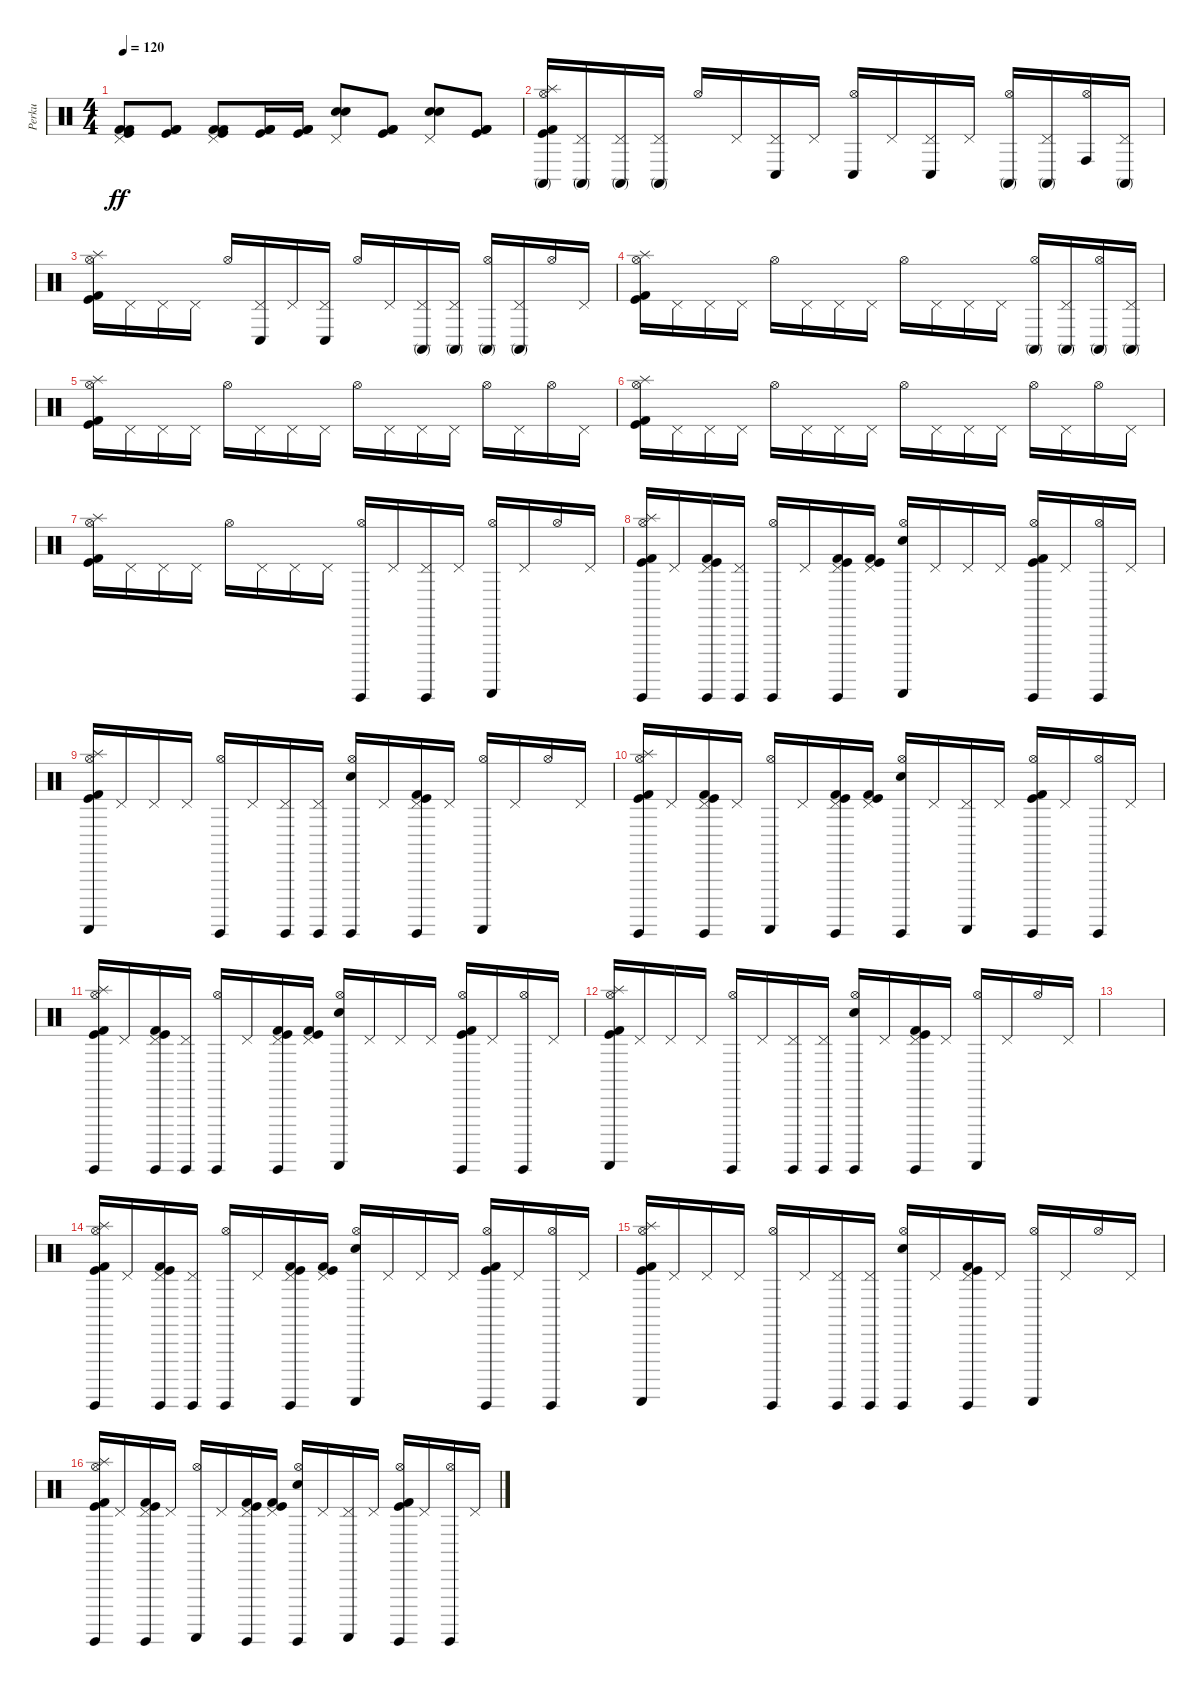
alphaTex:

\track ("Perku" "Perku") {instrument percussion}
\staff {score}
\articulation defaults
\ts (4 4)
\tempo 120
\clef neutral
\ks c
("Pedal Hi-Hat (hit)" "Kick (hit) 2" "Kick (hit) 2" "Kick (hit)").8{dy ff} ("Kick (hit) 2" "Kick (hit)" "Kick (hit) 2").8 ("Pedal Hi-Hat (hit)" "Kick (hit) 2" "Kick (hit) 2" "Kick (hit)").8 ("Kick (hit) 2" "Kick (hit) 2" "Kick (hit)").16 ("Kick (hit) 2" "Kick (hit)" "Kick (hit) 2").16 ("Pedal Hi-Hat (hit)" "Electric Snare (hit)" "Electric Snare (hit)").8 ("Kick (hit) 2" "Kick (hit)" "Kick (hit) 2").8 ("Pedal Hi-Hat (hit)" "Electric Snare (hit)" "Electric Snare (hit)").8 ("Kick (hit) 2" "Kick (hit) 2" "Kick (hit)").8 |
("Splash (hit)" "Hi-Hat (open)" "Conga high (mute)" "Kick (hit) 2" "Kick (hit)").16 ("Pedal Hi-Hat (hit)" "Conga high (mute)").16 ("Pedal Hi-Hat (hit)" "Conga high (mute)").16 ("Pedal Hi-Hat (hit)" "Conga high (mute)").16 "Hi-Hat (open)".16 "Pedal Hi-Hat (hit)".16 ("Pedal Hi-Hat (hit)" "Conga low (hit)").16 "Pedal Hi-Hat (hit)".16 ("Hi-Hat (open)" "Conga low (hit)").16 "Pedal Hi-Hat (hit)".16 ("Pedal Hi-Hat (hit)" "Conga low (hit)").16 "Pedal Hi-Hat (hit)".16 ("Hi-Hat (open)" "Conga high (mute)").16 ("Pedal Hi-Hat (hit)" "Conga high (mute)").16 ("Hi-Hat (open)" "Conga high (hit)").16 ("Pedal Hi-Hat (hit)" "Conga high (mute)").16 |
("Splash (hit)" "Hi-Hat (open)" "Kick (hit) 2" "Kick (hit)").16 "Pedal Hi-Hat (hit)".16 "Pedal Hi-Hat (hit)".16 "Pedal Hi-Hat (hit)".16 "Hi-Hat (open)".16 ("Pedal Hi-Hat (hit)" "Conga low (hit)").16 "Pedal Hi-Hat (hit)".16 ("Pedal Hi-Hat (hit)" "Conga low (hit)").16 "Hi-Hat (open)".16 "Pedal Hi-Hat (hit)".16 ("Pedal Hi-Hat (hit)" "Conga high (mute)").16 ("Pedal Hi-Hat (hit)" "Conga high (mute)").16 ("Hi-Hat (open)" "Conga high (mute)").16 ("Pedal Hi-Hat (hit)" "Conga high (mute)").16 "Hi-Hat (open)".16 "Pedal Hi-Hat (hit)".16 |
("Splash (hit)" "Hi-Hat (open)" "Kick (hit) 2" "Kick (hit)").16 "Pedal Hi-Hat (hit)".16 "Pedal Hi-Hat (hit)".16 "Pedal Hi-Hat (hit)".16 "Hi-Hat (open)".16 "Pedal Hi-Hat (hit)".16 "Pedal Hi-Hat (hit)".16 "Pedal Hi-Hat (hit)".16 "Hi-Hat (open)".16 "Pedal Hi-Hat (hit)".16 "Pedal Hi-Hat (hit)".16 "Pedal Hi-Hat (hit)".16 ("Hi-Hat (open)" "Conga high (mute)").16 ("Pedal Hi-Hat (hit)" "Conga high (mute)").16 ("Hi-Hat (open)" "Conga high (mute)").16 ("Pedal Hi-Hat (hit)" "Conga high (mute)").16 |
("Splash (hit)" "Hi-Hat (open)" "Kick (hit) 2" "Kick (hit)").16 "Pedal Hi-Hat (hit)".16 "Pedal Hi-Hat (hit)".16 "Pedal Hi-Hat (hit)".16 "Hi-Hat (open)".16 "Pedal Hi-Hat (hit)".16 "Pedal Hi-Hat (hit)".16 "Pedal Hi-Hat (hit)".16 "Hi-Hat (open)".16 "Pedal Hi-Hat (hit)".16 "Pedal Hi-Hat (hit)".16 "Pedal Hi-Hat (hit)".16 "Hi-Hat (open)".16 "Pedal Hi-Hat (hit)".16 "Hi-Hat (open)".16 "Pedal Hi-Hat (hit)".16 |
("Splash (hit)" "Hi-Hat (open)" "Kick (hit) 2" "Kick (hit)").16 "Pedal Hi-Hat (hit)".16 "Pedal Hi-Hat (hit)".16 "Pedal Hi-Hat (hit)".16 "Hi-Hat (open)".16 "Pedal Hi-Hat (hit)".16 "Pedal Hi-Hat (hit)".16 "Pedal Hi-Hat (hit)".16 "Hi-Hat (open)".16 "Pedal Hi-Hat (hit)".16 "Pedal Hi-Hat (hit)".16 "Pedal Hi-Hat (hit)".16 "Hi-Hat (open)".16 "Pedal Hi-Hat (hit)".16 "Hi-Hat (open)".16 "Pedal Hi-Hat (hit)".16 |
("Splash (hit)" "Hi-Hat (open)" "Kick (hit) 2" "Kick (hit)").16 "Pedal Hi-Hat (hit)".16 "Pedal Hi-Hat (hit)".16 "Pedal Hi-Hat (hit)".16 "Hi-Hat (open)".16 "Pedal Hi-Hat (hit)".16 "Pedal Hi-Hat (hit)".16 "Pedal Hi-Hat (hit)".16 ("Hi-Hat (open)" "Guiro (hit)").16 "Pedal Hi-Hat (hit)".16 ("Pedal Hi-Hat (hit)" "Guiro (hit)").16 "Pedal Hi-Hat (hit)".16 ("Hi-Hat (open)" "Guiro (scrap-return)").16 "Pedal Hi-Hat (hit)".16 "Hi-Hat (open)".16 "Pedal Hi-Hat (hit)".16 |
("Splash (hit)" "Hi-Hat (open)" "Guiro (hit)" "Kick (hit) 2" "Kick (hit)").16 "Pedal Hi-Hat (hit)".16 ("Pedal Hi-Hat (hit)" "Guiro (hit)" "Kick (hit) 2" "Kick (hit)").16 ("Pedal Hi-Hat (hit)" "Guiro (hit)").16 ("Hi-Hat (open)" "Guiro (hit)").16 "Pedal Hi-Hat (hit)".16 ("Pedal Hi-Hat (hit)" "Guiro (hit)" "Kick (hit) 2" "Kick (hit)").16 ("Pedal Hi-Hat (hit)" "Kick (hit)" "Kick (hit) 2").16 ("Hi-Hat (open)" "Electric Snare (hit)" "Guiro (scrap-return)").16 "Pedal Hi-Hat (hit)".16 "Pedal Hi-Hat (hit)".16 "Pedal Hi-Hat (hit)".16 ("Hi-Hat (open)" "Guiro (hit)" "Kick (hit) 2" "Kick (hit)").16 "Pedal Hi-Hat (hit)".16 ("Hi-Hat (open)" "Guiro (hit)").16 "Pedal Hi-Hat (hit)".16 |
("Splash (hit)" "Hi-Hat (open)" "Guiro (scrap-return)" "Kick (hit) 2" "Kick (hit)").16 "Pedal Hi-Hat (hit)".16 "Pedal Hi-Hat (hit)".16 "Pedal Hi-Hat (hit)".16 ("Hi-Hat (open)" "Guiro (hit)").16 "Pedal Hi-Hat (hit)".16 ("Pedal Hi-Hat (hit)" "Guiro (hit)").16 ("Pedal Hi-Hat (hit)" "Guiro (hit)").16 ("Hi-Hat (open)" "Electric Snare (hit)" "Guiro (hit)").16 "Pedal Hi-Hat (hit)".16 ("Pedal Hi-Hat (hit)" "Guiro (hit)" "Kick (hit)" "Kick (hit) 2").16 "Pedal Hi-Hat (hit)".16 ("Hi-Hat (open)" "Guiro (scrap-return)").16 "Pedal Hi-Hat (hit)".16 "Hi-Hat (open)".16 "Pedal Hi-Hat (hit)".16 |
("Splash (hit)" "Hi-Hat (open)" "Guiro (hit)" "Kick (hit) 2" "Kick (hit)").16 "Pedal Hi-Hat (hit)".16 ("Pedal Hi-Hat (hit)" "Guiro (hit)" "Kick (hit) 2" "Kick (hit)").16 "Pedal Hi-Hat (hit)".16 ("Hi-Hat (open)" "Guiro (scrap-return)").16 "Pedal Hi-Hat (hit)".16 ("Pedal Hi-Hat (hit)" "Guiro (hit)" "Kick (hit)" "Kick (hit) 2").16 ("Pedal Hi-Hat (hit)" "Kick (hit) 2" "Kick (hit)").16 ("Hi-Hat (open)" "Electric Snare (hit)" "Guiro (hit)").16 "Pedal Hi-Hat (hit)".16 ("Pedal Hi-Hat (hit)" "Guiro (scrap-return)").16 "Pedal Hi-Hat (hit)".16 ("Hi-Hat (open)" "Guiro (hit)" "Kick (hit) 2" "Kick (hit)").16 "Pedal Hi-Hat (hit)".16 ("Hi-Hat (open)" "Guiro (hit)").16 "Pedal Hi-Hat (hit)".16 |
("Splash (hit)" "Hi-Hat (open)" "Guiro (hit)" "Kick (hit) 2" "Kick (hit)").16 "Pedal Hi-Hat (hit)".16 ("Pedal Hi-Hat (hit)" "Guiro (hit)" "Kick (hit) 2" "Kick (hit)").16 ("Pedal Hi-Hat (hit)" "Guiro (hit)").16 ("Hi-Hat (open)" "Guiro (hit)").16 "Pedal Hi-Hat (hit)".16 ("Pedal Hi-Hat (hit)" "Guiro (hit)" "Kick (hit) 2" "Kick (hit)").16 ("Pedal Hi-Hat (hit)" "Kick (hit)" "Kick (hit) 2").16 ("Hi-Hat (open)" "Electric Snare (hit)" "Guiro (scrap-return)").16 "Pedal Hi-Hat (hit)".16 "Pedal Hi-Hat (hit)".16 "Pedal Hi-Hat (hit)".16 ("Hi-Hat (open)" "Guiro (hit)" "Kick (hit) 2" "Kick (hit)").16 "Pedal Hi-Hat (hit)".16 ("Hi-Hat (open)" "Guiro (hit)").16 "Pedal Hi-Hat (hit)".16 |
("Splash (hit)" "Hi-Hat (open)" "Guiro (scrap-return)" "Kick (hit) 2" "Kick (hit)").16 "Pedal Hi-Hat (hit)".16 "Pedal Hi-Hat (hit)".16 "Pedal Hi-Hat (hit)".16 ("Hi-Hat (open)" "Guiro (hit)").16 "Pedal Hi-Hat (hit)".16 ("Pedal Hi-Hat (hit)" "Guiro (hit)").16 ("Pedal Hi-Hat (hit)" "Guiro (hit)").16 ("Hi-Hat (open)" "Electric Snare (hit)" "Guiro (hit)").16 "Pedal Hi-Hat (hit)".16 ("Pedal Hi-Hat (hit)" "Guiro (hit)" "Kick (hit)" "Kick (hit) 2").16 "Pedal Hi-Hat (hit)".16 ("Hi-Hat (open)" "Guiro (scrap-return)").16 "Pedal Hi-Hat (hit)".16 "Hi-Hat (open)".16 "Pedal Hi-Hat (hit)".16 |
|
("Splash (hit)" "Hi-Hat (open)" "Guiro (hit)" "Kick (hit) 2" "Kick (hit)").16 "Pedal Hi-Hat (hit)".16 ("Pedal Hi-Hat (hit)" "Guiro (hit)" "Kick (hit) 2" "Kick (hit)").16 ("Pedal Hi-Hat (hit)" "Guiro (hit)").16 ("Hi-Hat (open)" "Guiro (hit)").16 "Pedal Hi-Hat (hit)".16 ("Pedal Hi-Hat (hit)" "Guiro (hit)" "Kick (hit) 2" "Kick (hit)").16 ("Pedal Hi-Hat (hit)" "Kick (hit)" "Kick (hit) 2").16 ("Hi-Hat (open)" "Electric Snare (hit)" "Guiro (scrap-return)").16 "Pedal Hi-Hat (hit)".16 "Pedal Hi-Hat (hit)".16 "Pedal Hi-Hat (hit)".16 ("Hi-Hat (open)" "Guiro (hit)" "Kick (hit) 2" "Kick (hit)").16 "Pedal Hi-Hat (hit)".16 ("Hi-Hat (open)" "Guiro (hit)").16 "Pedal Hi-Hat (hit)".16 |
("Splash (hit)" "Hi-Hat (open)" "Guiro (scrap-return)" "Kick (hit) 2" "Kick (hit)").16 "Pedal Hi-Hat (hit)".16 "Pedal Hi-Hat (hit)".16 "Pedal Hi-Hat (hit)".16 ("Hi-Hat (open)" "Guiro (hit)").16 "Pedal Hi-Hat (hit)".16 ("Pedal Hi-Hat (hit)" "Guiro (hit)").16 ("Pedal Hi-Hat (hit)" "Guiro (hit)").16 ("Hi-Hat (open)" "Electric Snare (hit)" "Guiro (hit)").16 "Pedal Hi-Hat (hit)".16 ("Pedal Hi-Hat (hit)" "Guiro (hit)" "Kick (hit)" "Kick (hit) 2").16 "Pedal Hi-Hat (hit)".16 ("Hi-Hat (open)" "Guiro (scrap-return)").16 "Pedal Hi-Hat (hit)".16 "Hi-Hat (open)".16 "Pedal Hi-Hat (hit)".16 |
("Splash (hit)" "Hi-Hat (open)" "Guiro (hit)" "Kick (hit) 2" "Kick (hit)").16 "Pedal Hi-Hat (hit)".16 ("Pedal Hi-Hat (hit)" "Guiro (hit)" "Kick (hit) 2" "Kick (hit)").16 "Pedal Hi-Hat (hit)".16 ("Hi-Hat (open)" "Guiro (scrap-return)").16 "Pedal Hi-Hat (hit)".16 ("Pedal Hi-Hat (hit)" "Guiro (hit)" "Kick (hit)" "Kick (hit) 2").16 ("Pedal Hi-Hat (hit)" "Kick (hit) 2" "Kick (hit)").16 ("Hi-Hat (open)" "Electric Snare (hit)" "Guiro (hit)").16 "Pedal Hi-Hat (hit)".16 ("Pedal Hi-Hat (hit)" "Guiro (scrap-return)").16 "Pedal Hi-Hat (hit)".16 ("Hi-Hat (open)" "Guiro (hit)" "Kick (hit) 2" "Kick (hit)").16 "Pedal Hi-Hat (hit)".16 ("Hi-Hat (open)" "Guiro (hit)").16 "Pedal Hi-Hat (hit)".16
